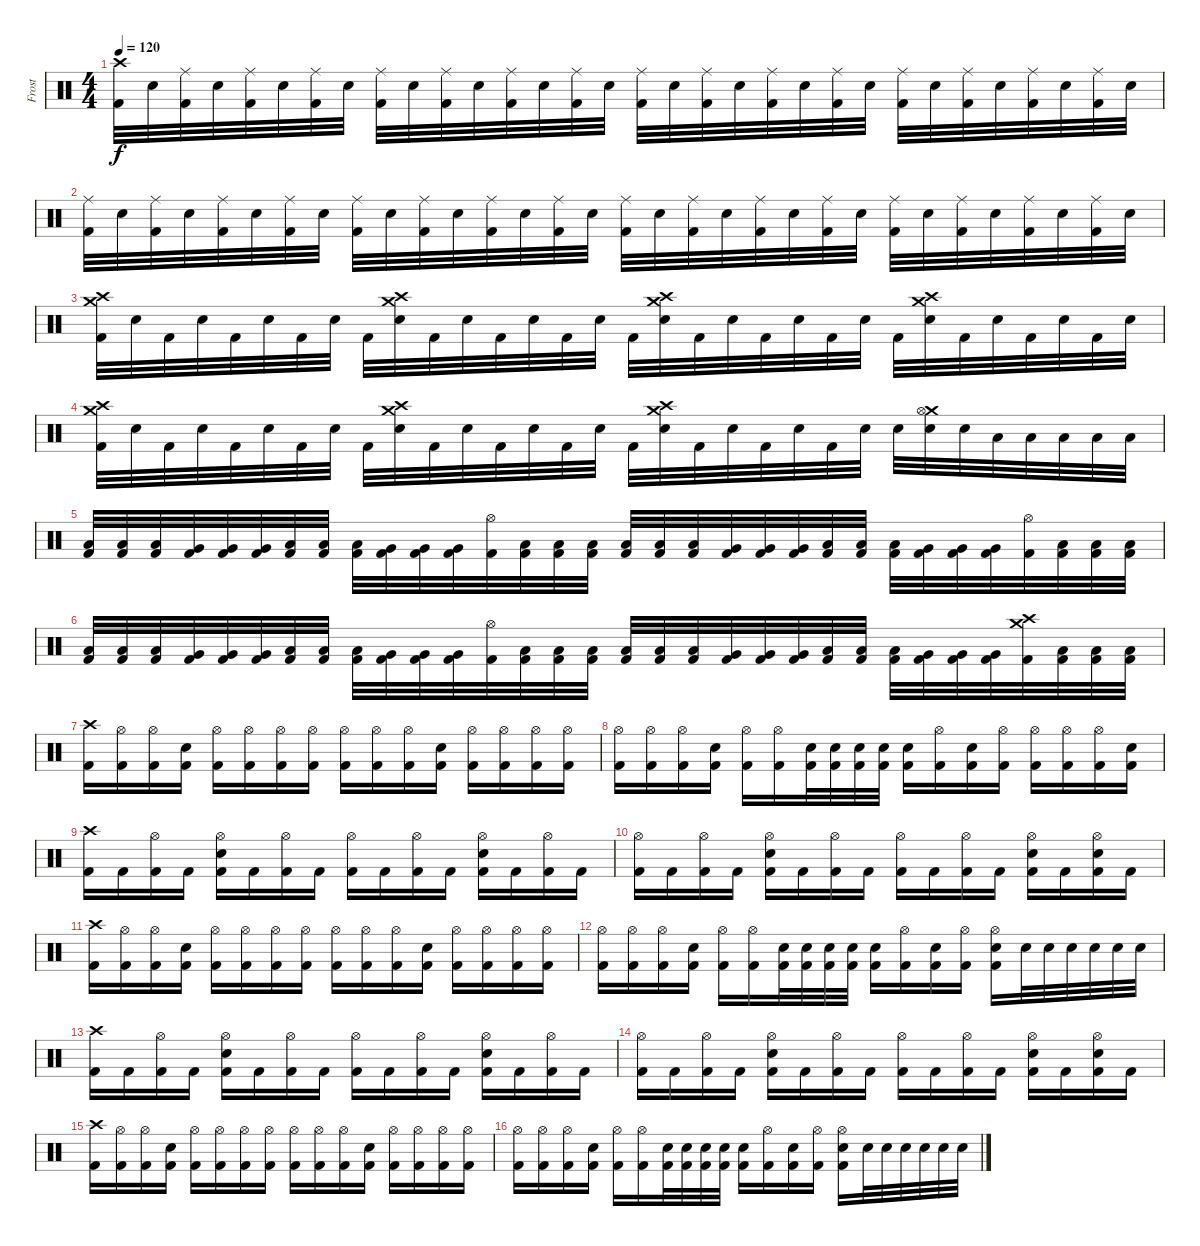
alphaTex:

\track ("Frost" "Frost") {instrument percussion}
\staff {score}
\articulation defaults
\ts (4 4)
\tempo 120
\clef neutral
\ks c
("Crash high (hit)" "Kick (hit) 2").32{dy f} "Snare (hit) 2".32 ("Ride (middle)" "Kick (hit) 2").32 "Snare (hit) 2".32 ("Ride (middle)" "Kick (hit) 2").32 "Snare (hit) 2".32 ("Ride (middle)" "Kick (hit) 2").32 "Snare (hit) 2".32 ("Ride (middle)" "Kick (hit) 2").32 "Snare (hit) 2".32 ("Ride (middle)" "Kick (hit) 2").32 "Snare (hit) 2".32 ("Ride (middle)" "Kick (hit) 2").32 "Snare (hit) 2".32 ("Ride (middle)" "Kick (hit) 2").32 "Snare (hit) 2".32 ("Ride (middle)" "Kick (hit) 2").32 "Snare (hit) 2".32 ("Ride (middle)" "Kick (hit) 2").32 "Snare (hit) 2".32 ("Ride (middle)" "Kick (hit) 2").32 "Snare (hit) 2".32 ("Ride (middle)" "Kick (hit) 2").32 "Snare (hit) 2".32 ("Ride (middle)" "Kick (hit) 2").32 "Snare (hit) 2".32 ("Ride (middle)" "Kick (hit) 2").32 "Snare (hit) 2".32 ("Ride (middle)" "Kick (hit) 2").32 "Snare (hit) 2".32 ("Ride (middle)" "Kick (hit) 2").32 "Snare (hit) 2".32 |
("Ride (middle)" "Kick (hit) 2").32 "Snare (hit) 2".32 ("Ride (middle)" "Kick (hit) 2").32 "Snare (hit) 2".32 ("Ride (middle)" "Kick (hit) 2").32 "Snare (hit) 2".32 ("Ride (middle)" "Kick (hit) 2").32 "Snare (hit) 2".32 ("Ride (middle)" "Kick (hit) 2").32 "Snare (hit) 2".32 ("Ride (middle)" "Kick (hit) 2").32 "Snare (hit) 2".32 ("Ride (middle)" "Kick (hit) 2").32 "Snare (hit) 2".32 ("Ride (middle)" "Kick (hit) 2").32 "Snare (hit) 2".32 ("Ride (middle)" "Kick (hit) 2").32 "Snare (hit) 2".32 ("Ride (middle)" "Kick (hit) 2").32 "Snare (hit) 2".32 ("Ride (middle)" "Kick (hit) 2").32 "Snare (hit) 2".32 ("Ride (middle)" "Kick (hit) 2").32 "Snare (hit) 2".32 ("Ride (middle)" "Kick (hit) 2").32 "Snare (hit) 2".32 ("Ride (middle)" "Kick (hit) 2").32 "Snare (hit) 2".32 ("Ride (middle)" "Kick (hit) 2").32 "Snare (hit) 2".32 ("Ride (middle)" "Kick (hit) 2").32 "Snare (hit) 2".32 |
("Crash medium (hit)" "Crash high (hit)" "Kick (hit) 2").32 "Snare (hit) 2".32 "Kick (hit) 2".32 "Snare (hit) 2".32 "Kick (hit) 2".32 "Snare (hit) 2".32 "Kick (hit) 2".32 "Snare (hit) 2".32 "Kick (hit) 2".32 ("Crash medium (hit)" "Crash high (hit)" "Snare (hit) 2").32 "Kick (hit) 2".32 "Snare (hit) 2".32 "Kick (hit) 2".32 "Snare (hit) 2".32 "Kick (hit) 2".32 "Snare (hit) 2".32 "Kick (hit) 2".32 ("Crash medium (hit)" "Crash high (hit)" "Snare (hit) 2").32 "Kick (hit) 2".32 "Snare (hit) 2".32 "Kick (hit) 2".32 "Snare (hit) 2".32 "Kick (hit) 2".32 "Snare (hit) 2".32 "Kick (hit) 2".32 ("Crash medium (hit)" "Crash high (hit)" "Snare (hit) 2").32 "Kick (hit) 2".32 "Snare (hit) 2".32 "Kick (hit) 2".32 "Snare (hit) 2".32 "Kick (hit) 2".32 "Snare (hit) 2".32 |
("Crash medium (hit)" "Crash high (hit)" "Kick (hit) 2").32 "Snare (hit) 2".32 "Kick (hit) 2".32 "Snare (hit) 2".32 "Kick (hit) 2".32 "Snare (hit) 2".32 "Kick (hit) 2".32 "Snare (hit) 2".32 "Kick (hit) 2".32 ("Crash medium (hit)" "Crash high (hit)" "Snare (hit) 2").32 "Kick (hit) 2".32 "Snare (hit) 2".32 "Kick (hit) 2".32 "Snare (hit) 2".32 "Kick (hit) 2".32 "Snare (hit) 2".32 "Kick (hit) 2".32 ("Crash medium (hit)" "Crash high (hit)" "Snare (hit) 2").32 "Kick (hit) 2".32 "Snare (hit) 2".32 "Kick (hit) 2".32 "Snare (hit) 2".32 "Kick (hit) 2".32 "Snare (hit) 2".32 "Snare (hit) 2".32 ("Crash medium (hit)" "Hi-Hat (open)" "Snare (hit) 2").32 "Snare (hit) 2".32 "Low Tom (hit)".32 "Low Tom (hit)".32 "Low Tom (hit)".32 "Low Tom (hit)".32 "Low Tom (hit)".32 |
("Low Tom (hit)" "Kick (hit) 2").32 ("Low Tom (hit)" "Kick (hit) 2").32 ("Low Tom (hit)" "Kick (hit) 2").32 ("Very Low Tom (hit)" "Kick (hit) 2").32 ("Very Low Tom (hit)" "Kick (hit) 2").32 ("Very Low Tom (hit)" "Kick (hit) 2").32 ("Low Tom (hit)" "Kick (hit) 2").32 ("Low Tom (hit)" "Kick (hit) 2").32 ("Low Tom (hit)" "Kick (hit) 2").32 ("Very Low Tom (hit)" "Kick (hit) 2").32 ("Very Low Tom (hit)" "Kick (hit) 2").32 ("Very Low Tom (hit)" "Kick (hit) 2").32 ("Hi-Hat (open)" "Kick (hit) 2").32 ("Low Floor Tom (hit)" "Kick (hit) 2").32 ("Low Floor Tom (hit)" "Kick (hit) 2").32 ("Low Floor Tom (hit)" "Kick (hit) 2").32 ("Low Tom (hit)" "Kick (hit) 2").32 ("Low Tom (hit)" "Kick (hit) 2").32 ("Low Tom (hit)" "Kick (hit) 2").32 ("Very Low Tom (hit)" "Kick (hit) 2").32 ("Very Low Tom (hit)" "Kick (hit) 2").32 ("Very Low Tom (hit)" "Kick (hit) 2").32 ("Low Tom (hit)" "Kick (hit) 2").32 ("Low Tom (hit)" "Kick (hit) 2").32 ("Low Tom (hit)" "Kick (hit) 2").32 ("Very Low Tom (hit)" "Kick (hit) 2").32 ("Very Low Tom (hit)" "Kick (hit) 2").32 ("Very Low Tom (hit)" "Kick (hit) 2").32 ("Hi-Hat (open)" "Kick (hit) 2").32 ("Low Floor Tom (hit)" "Kick (hit) 2").32 ("Low Floor Tom (hit)" "Kick (hit) 2").32 ("Low Floor Tom (hit)" "Kick (hit) 2").32 |
("Low Tom (hit)" "Kick (hit) 2").32 ("Low Tom (hit)" "Kick (hit) 2").32 ("Low Tom (hit)" "Kick (hit) 2").32 ("Very Low Tom (hit)" "Kick (hit) 2").32 ("Very Low Tom (hit)" "Kick (hit) 2").32 ("Very Low Tom (hit)" "Kick (hit) 2").32 ("Low Tom (hit)" "Kick (hit) 2").32 ("Low Tom (hit)" "Kick (hit) 2").32 ("Low Tom (hit)" "Kick (hit) 2").32 ("Very Low Tom (hit)" "Kick (hit) 2").32 ("Very Low Tom (hit)" "Kick (hit) 2").32 ("Very Low Tom (hit)" "Kick (hit) 2").32 ("Hi-Hat (open)" "Kick (hit) 2").32 ("Low Floor Tom (hit)" "Kick (hit) 2").32 ("Low Floor Tom (hit)" "Kick (hit) 2").32 ("Low Floor Tom (hit)" "Kick (hit) 2").32 ("Low Tom (hit)" "Kick (hit) 2").32 ("Low Tom (hit)" "Kick (hit) 2").32 ("Low Tom (hit)" "Kick (hit) 2").32 ("Very Low Tom (hit)" "Kick (hit) 2").32 ("Very Low Tom (hit)" "Kick (hit) 2").32 ("Very Low Tom (hit)" "Kick (hit) 2").32 ("Low Tom (hit)" "Kick (hit) 2").32 ("Low Tom (hit)" "Kick (hit) 2").32 ("Low Tom (hit)" "Kick (hit) 2").32 ("Very Low Tom (hit)" "Kick (hit) 2").32 ("Very Low Tom (hit)" "Kick (hit) 2").32 ("Very Low Tom (hit)" "Kick (hit) 2").32 ("Crash medium (hit)" "Crash high (hit)" "Kick (hit) 2").32 ("Low Floor Tom (hit)" "Kick (hit) 2").32 ("Low Floor Tom (hit)" "Kick (hit) 2").32 ("Low Floor Tom (hit)" "Kick (hit) 2").32 |
("Crash high (hit)" "Kick (hit) 2").16 ("Hi-Hat (open)" "Kick (hit) 2").16 ("Hi-Hat (open)" "Kick (hit) 2").16 ("Snare (hit) 2" "Kick (hit) 2").16 ("Hi-Hat (open)" "Kick (hit) 2").16 ("Hi-Hat (open)" "Kick (hit) 2").16 ("Hi-Hat (open)" "Kick (hit) 2").16 ("Hi-Hat (open)" "Kick (hit) 2").16 ("Hi-Hat (open)" "Kick (hit) 2").16 ("Hi-Hat (open)" "Kick (hit) 2").16 ("Hi-Hat (open)" "Kick (hit) 2").16 ("Snare (hit) 2" "Kick (hit) 2").16 ("Hi-Hat (open)" "Kick (hit) 2").16 ("Hi-Hat (open)" "Kick (hit) 2").16 ("Hi-Hat (open)" "Kick (hit) 2").16 ("Hi-Hat (open)" "Kick (hit) 2").16 |
("Hi-Hat (open)" "Kick (hit) 2").16 ("Hi-Hat (open)" "Kick (hit) 2").16 ("Hi-Hat (open)" "Kick (hit) 2").16 ("Snare (hit) 2" "Kick (hit) 2").16 ("Hi-Hat (open)" "Kick (hit) 2").16 ("Hi-Hat (open)" "Kick (hit) 2").16 ("Snare (hit) 2" "Kick (hit) 2").32 ("Snare (hit) 2" "Kick (hit) 2").32 ("Snare (hit) 2" "Kick (hit) 2").32 ("Snare (hit) 2" "Kick (hit) 2").32 ("Snare (hit) 2" "Kick (hit) 2").16 ("Hi-Hat (open)" "Kick (hit) 2").16 ("Snare (hit) 2" "Kick (hit) 2").16 ("Hi-Hat (open)" "Kick (hit) 2").16 ("Hi-Hat (open)" "Kick (hit) 2").16 ("Hi-Hat (open)" "Kick (hit) 2").16 ("Hi-Hat (open)" "Kick (hit) 2").16 ("Snare (hit) 2" "Kick (hit) 2").16 |
("Crash high (hit)" "Kick (hit) 2").16 "Kick (hit) 2".16 ("Hi-Hat (open)" "Kick (hit) 2").16 "Kick (hit) 2".16 ("Hi-Hat (open)" "Snare (hit) 2" "Kick (hit) 2").16 "Kick (hit) 2".16 ("Hi-Hat (open)" "Kick (hit) 2").16 "Kick (hit) 2".16 ("Hi-Hat (open)" "Kick (hit) 2").16 "Kick (hit) 2".16 ("Hi-Hat (open)" "Kick (hit) 2").16 "Kick (hit) 2".16 ("Hi-Hat (open)" "Snare (hit) 2" "Kick (hit) 2").16 "Kick (hit) 2".16 ("Hi-Hat (open)" "Kick (hit) 2").16 "Kick (hit) 2".16 |
("Hi-Hat (open)" "Kick (hit) 2").16 "Kick (hit) 2".16 ("Hi-Hat (open)" "Kick (hit) 2").16 "Kick (hit) 2".16 ("Hi-Hat (open)" "Snare (hit) 2" "Kick (hit) 2").16 "Kick (hit) 2".16 ("Hi-Hat (open)" "Kick (hit) 2").16 "Kick (hit) 2".16 ("Hi-Hat (open)" "Kick (hit) 2").16 "Kick (hit) 2".16 ("Hi-Hat (open)" "Kick (hit) 2").16 "Kick (hit) 2".16 ("Hi-Hat (open)" "Snare (hit) 2" "Kick (hit) 2").16 "Kick (hit) 2".16 ("Hi-Hat (open)" "Snare (hit) 2" "Kick (hit) 2").16 "Kick (hit) 2".16 |
("Crash high (hit)" "Kick (hit) 2").16 ("Hi-Hat (open)" "Kick (hit) 2").16 ("Hi-Hat (open)" "Kick (hit) 2").16 ("Snare (hit) 2" "Kick (hit) 2").16 ("Hi-Hat (open)" "Kick (hit) 2").16 ("Hi-Hat (open)" "Kick (hit) 2").16 ("Hi-Hat (open)" "Kick (hit) 2").16 ("Hi-Hat (open)" "Kick (hit) 2").16 ("Hi-Hat (open)" "Kick (hit) 2").16 ("Hi-Hat (open)" "Kick (hit) 2").16 ("Hi-Hat (open)" "Kick (hit) 2").16 ("Snare (hit) 2" "Kick (hit) 2").16 ("Hi-Hat (open)" "Kick (hit) 2").16 ("Hi-Hat (open)" "Kick (hit) 2").16 ("Hi-Hat (open)" "Kick (hit) 2").16 ("Hi-Hat (open)" "Kick (hit) 2").16 |
("Hi-Hat (open)" "Kick (hit) 2").16 ("Hi-Hat (open)" "Kick (hit) 2").16 ("Hi-Hat (open)" "Kick (hit) 2").16 ("Snare (hit) 2" "Kick (hit) 2").16 ("Hi-Hat (open)" "Kick (hit) 2").16 ("Hi-Hat (open)" "Kick (hit) 2").16 ("Snare (hit) 2" "Kick (hit) 2").32 ("Snare (hit) 2" "Kick (hit) 2").32 ("Snare (hit) 2" "Kick (hit) 2").32 ("Snare (hit) 2" "Kick (hit) 2").32 ("Snare (hit) 2" "Kick (hit) 2").16 ("Hi-Hat (open)" "Kick (hit) 2").16 ("Snare (hit) 2" "Kick (hit) 2").16 ("Hi-Hat (open)" "Kick (hit) 2").16 ("Hi-Hat (open)" "Snare (hit) 2" "Kick (hit) 2").16 "Snare (hit) 2".32 "Snare (hit) 2".32 "Snare (hit) 2".32 "Snare (hit) 2".32 "Snare (hit) 2".32 "Snare (hit) 2".32 |
("Crash high (hit)" "Kick (hit) 2").16 "Kick (hit) 2".16 ("Hi-Hat (open)" "Kick (hit) 2").16 "Kick (hit) 2".16 ("Hi-Hat (open)" "Snare (hit) 2" "Kick (hit) 2").16 "Kick (hit) 2".16 ("Hi-Hat (open)" "Kick (hit) 2").16 "Kick (hit) 2".16 ("Hi-Hat (open)" "Kick (hit) 2").16 "Kick (hit) 2".16 ("Hi-Hat (open)" "Kick (hit) 2").16 "Kick (hit) 2".16 ("Hi-Hat (open)" "Snare (hit) 2" "Kick (hit) 2").16 "Kick (hit) 2".16 ("Hi-Hat (open)" "Kick (hit) 2").16 "Kick (hit) 2".16 |
("Hi-Hat (open)" "Kick (hit) 2").16 "Kick (hit) 2".16 ("Hi-Hat (open)" "Kick (hit) 2").16 "Kick (hit) 2".16 ("Hi-Hat (open)" "Snare (hit) 2" "Kick (hit) 2").16 "Kick (hit) 2".16 ("Hi-Hat (open)" "Kick (hit) 2").16 "Kick (hit) 2".16 ("Hi-Hat (open)" "Kick (hit) 2").16 "Kick (hit) 2".16 ("Hi-Hat (open)" "Kick (hit) 2").16 "Kick (hit) 2".16 ("Hi-Hat (open)" "Snare (hit) 2" "Kick (hit) 2").16 "Kick (hit) 2".16 ("Hi-Hat (open)" "Snare (hit) 2" "Kick (hit) 2").16 "Kick (hit) 2".16 |
("Crash high (hit)" "Kick (hit) 2").16 ("Hi-Hat (open)" "Kick (hit) 2").16 ("Hi-Hat (open)" "Kick (hit) 2").16 ("Snare (hit) 2" "Kick (hit) 2").16 ("Hi-Hat (open)" "Kick (hit) 2").16 ("Hi-Hat (open)" "Kick (hit) 2").16 ("Hi-Hat (open)" "Kick (hit) 2").16 ("Hi-Hat (open)" "Kick (hit) 2").16 ("Hi-Hat (open)" "Kick (hit) 2").16 ("Hi-Hat (open)" "Kick (hit) 2").16 ("Hi-Hat (open)" "Kick (hit) 2").16 ("Snare (hit) 2" "Kick (hit) 2").16 ("Hi-Hat (open)" "Kick (hit) 2").16 ("Hi-Hat (open)" "Kick (hit) 2").16 ("Hi-Hat (open)" "Kick (hit) 2").16 ("Hi-Hat (open)" "Kick (hit) 2").16 |
("Hi-Hat (open)" "Kick (hit) 2").16 ("Hi-Hat (open)" "Kick (hit) 2").16 ("Hi-Hat (open)" "Kick (hit) 2").16 ("Snare (hit) 2" "Kick (hit) 2").16 ("Hi-Hat (open)" "Kick (hit) 2").16 ("Hi-Hat (open)" "Kick (hit) 2").16 ("Snare (hit) 2" "Kick (hit) 2").32 ("Snare (hit) 2" "Kick (hit) 2").32 ("Snare (hit) 2" "Kick (hit) 2").32 ("Snare (hit) 2" "Kick (hit) 2").32 ("Snare (hit) 2" "Kick (hit) 2").16 ("Hi-Hat (open)" "Kick (hit) 2").16 ("Snare (hit) 2" "Kick (hit) 2").16 ("Hi-Hat (open)" "Kick (hit) 2").16 ("Hi-Hat (open)" "Snare (hit) 2" "Kick (hit) 2").16 "Snare (hit) 2".32 "Snare (hit) 2".32 "Snare (hit) 2".32 "Snare (hit) 2".32 "Snare (hit) 2".32 "Snare (hit) 2".32
